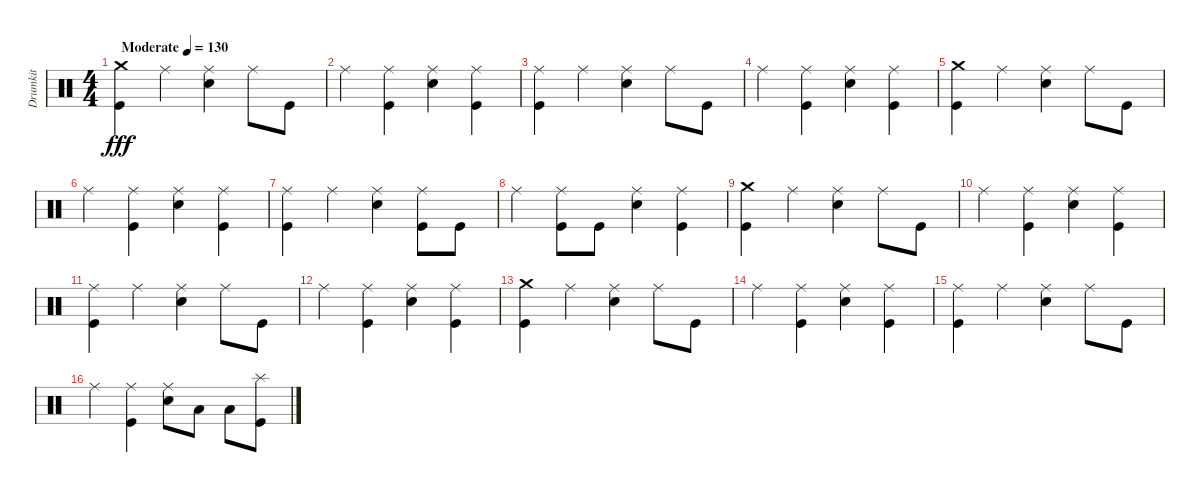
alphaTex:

\track ("Drumkit" "Drumkit") {instrument percussion}
\staff {score}
\articulation defaults
\ts (4 4)
\tempo (130 "Moderate")
\clef neutral
\ks c
("Kick (hit)" "Crash medium (hit)").4{dy fff} "Ride (middle)".4 ("Snare (hit) 2" "Ride (middle)").4 "Ride (middle)".8 "Kick (hit)".8 |
"Ride (middle)".4 ("Kick (hit)" "Ride (middle)").4 ("Snare (hit) 2" "Ride (middle)").4 ("Kick (hit)" "Ride (middle)").4 |
("Kick (hit)" "Ride (middle)").4 "Ride (middle)".4 ("Snare (hit) 2" "Ride (middle)").4 "Ride (middle)".8 "Kick (hit)".8 |
"Ride (middle)".4 ("Kick (hit)" "Ride (middle)").4 ("Snare (hit) 2" "Ride (middle)").4 ("Kick (hit)" "Ride (middle)").4 |
("Kick (hit)" "Crash medium (hit)").4 "Ride (middle)".4 ("Snare (hit) 2" "Ride (middle)").4 "Ride (middle)".8 "Kick (hit)".8 |
"Ride (middle)".4 ("Kick (hit)" "Ride (middle)").4 ("Snare (hit) 2" "Ride (middle)").4 ("Kick (hit)" "Ride (middle)").4 |
("Kick (hit)" "Ride (middle)").4 "Ride (middle)".4 ("Snare (hit) 2" "Ride (middle)").4 ("Kick (hit)" "Ride (middle)").8 "Kick (hit)".8 |
"Ride (middle)".4 ("Kick (hit)" "Ride (middle)").8 "Kick (hit)".8 ("Snare (hit) 2" "Ride (middle)").4 ("Kick (hit)" "Ride (middle)").4 |
("Kick (hit)" "Crash medium (hit)").4 "Ride (middle)".4 ("Snare (hit) 2" "Ride (middle)").4 "Ride (middle)".8 "Kick (hit)".8 |
"Ride (middle)".4 ("Kick (hit)" "Ride (middle)").4 ("Snare (hit) 2" "Ride (middle)").4 ("Kick (hit)" "Ride (middle)").4 |
("Kick (hit)" "Ride (middle)").4 "Ride (middle)".4 ("Snare (hit) 2" "Ride (middle)").4 "Ride (middle)".8 "Kick (hit)".8 |
"Ride (middle)".4 ("Kick (hit)" "Ride (middle)").4 ("Snare (hit) 2" "Ride (middle)").4 ("Kick (hit)" "Ride (middle)").4 |
("Kick (hit)" "Crash medium (hit)").4 "Ride (middle)".4 ("Snare (hit) 2" "Ride (middle)").4 "Ride (middle)".8 "Kick (hit)".8 |
"Ride (middle)".4 ("Kick (hit)" "Ride (middle)").4 ("Snare (hit) 2" "Ride (middle)").4 ("Kick (hit)" "Ride (middle)").4 |
("Kick (hit)" "Ride (middle)").4 "Ride (middle)".4 ("Snare (hit) 2" "Ride (middle)").4 "Ride (middle)".8 "Kick (hit)".8 |
"Ride (middle)".4 ("Kick (hit)" "Ride (middle)").4 ("Ride (middle)" "Snare (hit) 2").8 "Low Tom (hit)".8 "Low Tom (hit)".8 ("Kick (hit)" "Splash (hit)").8
